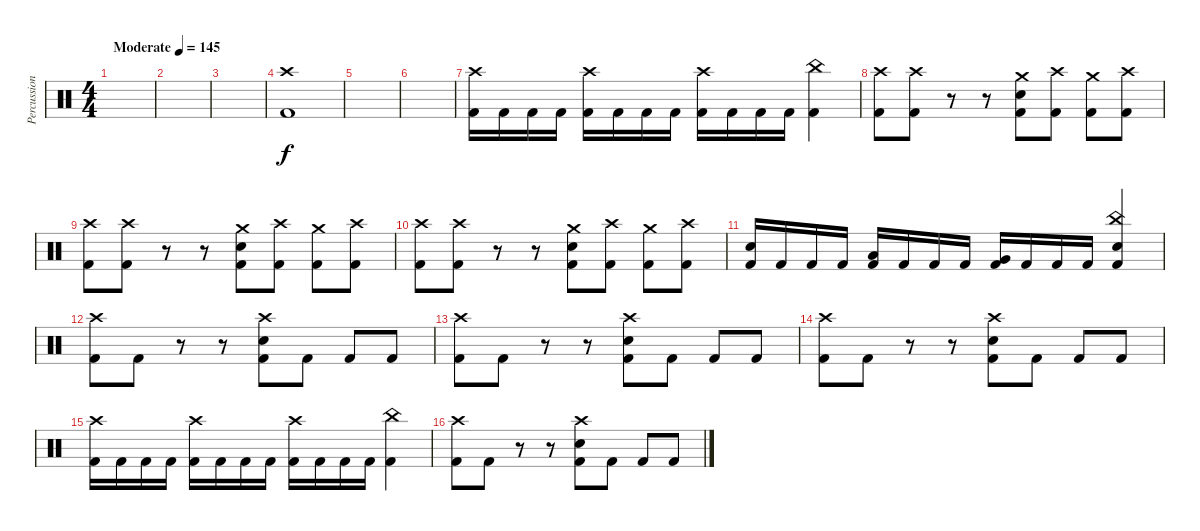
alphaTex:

\track ("Percussion" "Percussion") {instrument percussion}
\staff {score}
\articulation defaults
\ts (4 4)
\tempo (145 "Moderate")
\clef neutral
\ks c
|
|
|
("Crash high (hit)" "Kick (hit) 2").1 |
|
|
("Crash high (hit)" "Kick (hit) 2").16 "Kick (hit) 2".16 "Kick (hit) 2".16 "Kick (hit) 2".16 ("Crash high (hit)" "Kick (hit) 2").16 "Kick (hit) 2".16 "Kick (hit) 2".16 "Kick (hit) 2".16 ("Crash high (hit)" "Kick (hit) 2").16 "Kick (hit) 2".16 "Kick (hit) 2".16 "Kick (hit) 2".16 ("China (hit)" "Kick (hit) 2").4 |
("Crash high (hit)" "Kick (hit) 2").8 ("Crash high (hit)" "Kick (hit) 2").8 r.8 r.8 ("Crash medium (hit)" "Electric Snare (hit)" "Kick (hit) 2").8 ("Crash high (hit)" "Kick (hit) 2").8 ("Crash medium (hit)" "Kick (hit) 2").8 ("Crash high (hit)" "Kick (hit) 2").8 |
("Crash high (hit)" "Kick (hit) 2").8 ("Crash high (hit)" "Kick (hit) 2").8 r.8 r.8 ("Crash medium (hit)" "Electric Snare (hit)" "Kick (hit) 2").8 ("Crash high (hit)" "Kick (hit) 2").8 ("Crash medium (hit)" "Kick (hit) 2").8 ("Crash high (hit)" "Kick (hit) 2").8 |
("Crash high (hit)" "Kick (hit) 2").8 ("Crash high (hit)" "Kick (hit) 2").8 r.8 r.8 ("Crash medium (hit)" "Electric Snare (hit)" "Kick (hit) 2").8 ("Crash high (hit)" "Kick (hit) 2").8 ("Crash medium (hit)" "Kick (hit) 2").8 ("Crash high (hit)" "Kick (hit) 2").8 |
("Electric Snare (hit)" "Kick (hit) 2").16 "Kick (hit) 2".16 "Kick (hit) 2".16 "Kick (hit) 2".16 ("Low Tom (hit)" "Kick (hit) 2").16 "Kick (hit) 2".16 "Kick (hit) 2".16 "Kick (hit) 2".16 ("Very Low Tom (hit)" "Kick (hit) 2").16 "Kick (hit) 2".16 "Kick (hit) 2".16 "Kick (hit) 2".16 ("China (hit)" "Electric Snare (hit)" "Kick (hit) 2").4 |
("Crash high (hit)" "Kick (hit) 2").8 "Kick (hit) 2".8 r.8 r.8 ("Crash high (hit)" "Electric Snare (hit)" "Kick (hit) 2").8 "Kick (hit) 2".8 "Kick (hit) 2".8 "Kick (hit) 2".8 |
("Crash high (hit)" "Kick (hit) 2").8 "Kick (hit) 2".8 r.8 r.8 ("Crash high (hit)" "Electric Snare (hit)" "Kick (hit) 2").8 "Kick (hit) 2".8 "Kick (hit) 2".8 "Kick (hit) 2".8 |
("Crash high (hit)" "Kick (hit) 2").8 "Kick (hit) 2".8 r.8 r.8 ("Crash high (hit)" "Electric Snare (hit)" "Kick (hit) 2").8 "Kick (hit) 2".8 "Kick (hit) 2".8 "Kick (hit) 2".8 |
("Crash high (hit)" "Kick (hit) 2").16 "Kick (hit) 2".16 "Kick (hit) 2".16 "Kick (hit) 2".16 ("Crash high (hit)" "Kick (hit) 2").16 "Kick (hit) 2".16 "Kick (hit) 2".16 "Kick (hit) 2".16 ("Crash high (hit)" "Kick (hit) 2").16 "Kick (hit) 2".16 "Kick (hit) 2".16 "Kick (hit) 2".16 ("China (hit)" "Kick (hit) 2").4 |
("Crash high (hit)" "Kick (hit) 2").8 "Kick (hit) 2".8 r.8 r.8 ("Crash high (hit)" "Electric Snare (hit)" "Kick (hit) 2").8 "Kick (hit) 2".8 "Kick (hit) 2".8 "Kick (hit) 2".8
